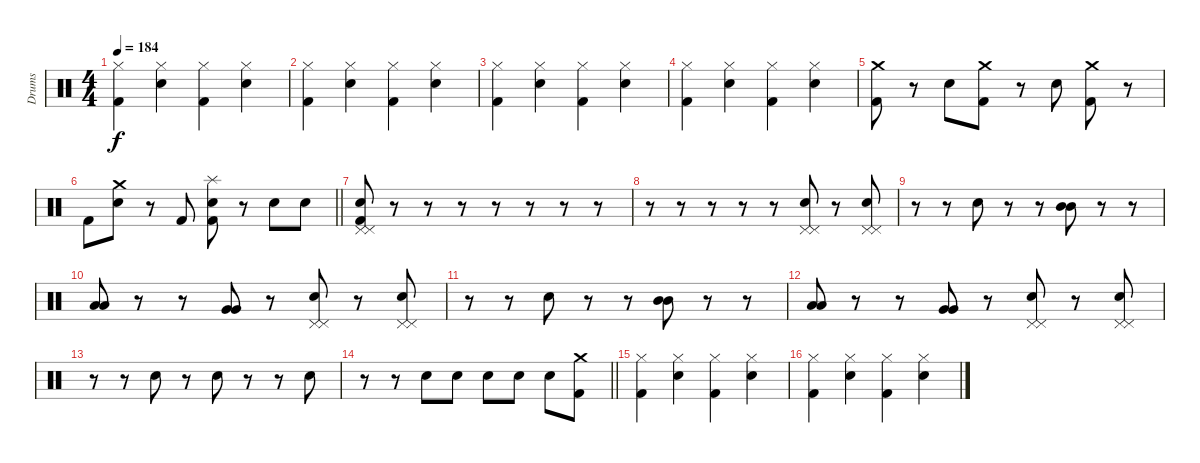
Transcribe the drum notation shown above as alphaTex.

\track ("Drums" "Drums") {instrument percussion}
\staff {score}
\articulation defaults
\ts (4 4)
\tempo 184
\clef neutral
\ks c
("Hi-Hat (closed)" "Kick (hit) 2").4{dy f} ("Hi-Hat (closed)" "Snare (hit) 2").4 ("Hi-Hat (closed)" "Kick (hit) 2").4 ("Hi-Hat (closed)" "Snare (hit) 2").4 |
("Hi-Hat (closed)" "Kick (hit) 2").4 ("Hi-Hat (closed)" "Snare (hit) 2").4 ("Hi-Hat (closed)" "Kick (hit) 2").4 ("Hi-Hat (closed)" "Snare (hit) 2").4 |
("Hi-Hat (closed)" "Kick (hit) 2").4 ("Hi-Hat (closed)" "Snare (hit) 2").4 ("Hi-Hat (closed)" "Kick (hit) 2").4 ("Hi-Hat (closed)" "Snare (hit) 2").4 |
("Hi-Hat (closed)" "Kick (hit) 2").4 ("Hi-Hat (closed)" "Snare (hit) 2").4 ("Hi-Hat (closed)" "Kick (hit) 2").4 ("Hi-Hat (closed)" "Snare (hit) 2").4 |
("Crash medium (hit)" "Kick (hit) 2").8 r.8 "Snare (hit) 2".8 ("Crash medium (hit)" "Kick (hit) 2").8 r.8 "Snare (hit) 2".8 ("Crash medium (hit)" "Kick (hit) 2").8 r.8 |
\barLineRight lightlight "Kick (hit) 2".8
("Crash medium (hit)" "Snare (hit) 2").8 r.8 "Kick (hit) 2".8 ("Splash (hit)" "Snare (hit) 2" "Kick (hit) 2").8 r.8 "Snare (hit) 2".8 "Snare (hit) 2".8 |
("Pedal Hi-Hat (hit)" "Pedal Hi-Hat (hit)" "Snare (hit) 2" "Kick (hit) 2").8 r.8 r.8 r.8 r.8 r.8 r.8 r.8 |
r.8 r.8 r.8 r.8 r.8 ("Pedal Hi-Hat (hit)" "Pedal Hi-Hat (hit)" "Snare (hit) 2").8 r.8 ("Pedal Hi-Hat (hit)" "Pedal Hi-Hat (hit)" "Snare (hit) 2").8 |
r.8 r.8 "Snare (hit) 2".8 r.8 r.8 ("Mid Tom (hit)" "Mid Tom (hit)").8 r.8 r.8 |
("Low Tom (hit)" "Low Tom (hit)").8 r.8 r.8 ("Very Low Tom (hit)" "Very Low Tom (hit)").8 r.8 ("Pedal Hi-Hat (hit)" "Pedal Hi-Hat (hit)" "Snare (hit) 2").8 r.8 ("Pedal Hi-Hat (hit)" "Pedal Hi-Hat (hit)" "Snare (hit) 2").8 |
r.8 r.8 "Snare (hit) 2".8 r.8 r.8 ("Mid Tom (hit)" "Mid Tom (hit)").8 r.8 r.8 |
("Low Tom (hit)" "Low Tom (hit)").8 r.8 r.8 ("Very Low Tom (hit)" "Very Low Tom (hit)").8 r.8 ("Pedal Hi-Hat (hit)" "Pedal Hi-Hat (hit)" "Snare (hit) 2").8 r.8 ("Pedal Hi-Hat (hit)" "Pedal Hi-Hat (hit)" "Snare (hit) 2").8 |
r.8 r.8 "Snare (hit) 2".8 r.8 "Snare (hit) 2".8 r.8 r.8 "Snare (hit) 2".8 |
\barLineRight lightlight
r.8 r.8 "Snare (hit) 2".8 "Snare (hit) 2".8 "Snare (hit) 2".8 "Snare (hit) 2".8 "Snare (hit) 2".8 ("Crash medium (hit)" "Kick (hit) 2").8 |
("Hi-Hat (closed)" "Kick (hit) 2").4 ("Hi-Hat (closed)" "Snare (hit) 2").4 ("Hi-Hat (closed)" "Kick (hit) 2").4 ("Hi-Hat (closed)" "Snare (hit) 2").4 |
("Hi-Hat (closed)" "Kick (hit) 2").4 ("Hi-Hat (closed)" "Snare (hit) 2").4 ("Hi-Hat (closed)" "Kick (hit) 2").4 ("Hi-Hat (closed)" "Snare (hit) 2").4
